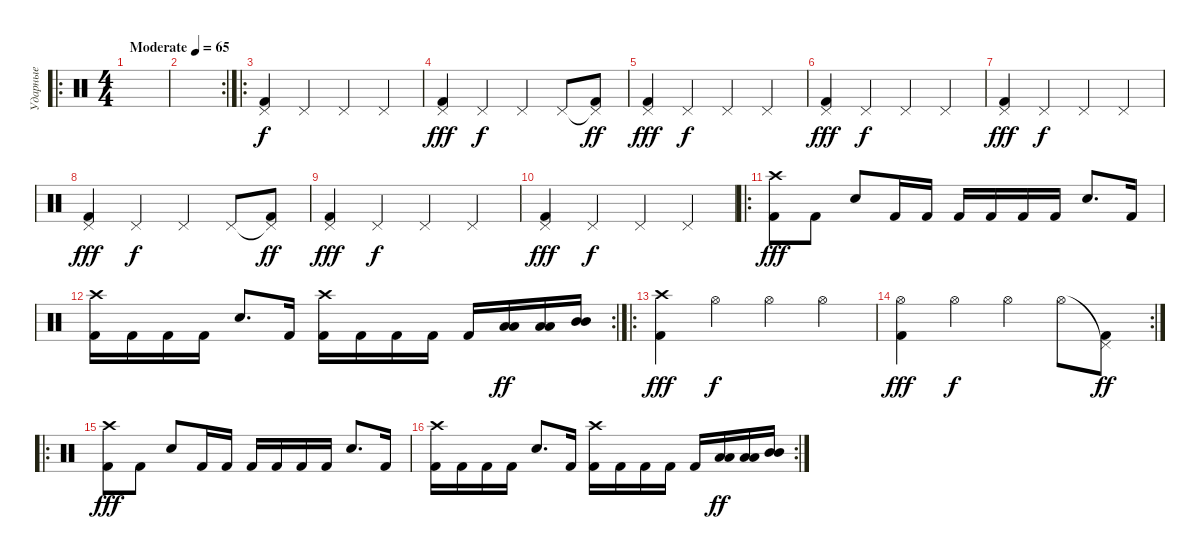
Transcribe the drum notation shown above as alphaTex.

\track ("Ударные" "Ударные") {instrument percussion}
\staff {score}
\articulation defaults
\ro
\ts (4 4)
\tempo (65 "Moderate")
\clef neutral
\ks c
|
\rc 2
|
\ro
("Pedal Hi-Hat (hit)" "Kick (hit) 2").4 "Pedal Hi-Hat (hit)".4{dy f} "Pedal Hi-Hat (hit)".4 "Pedal Hi-Hat (hit)".4 |
("Pedal Hi-Hat (hit)" "Kick (hit) 2").4{dy fff} "Pedal Hi-Hat (hit)".4{dy f} "Pedal Hi-Hat (hit)".4 "Pedal Hi-Hat (hit)".8 ("Pedal Hi-Hat (hit)"{t} "Kick (hit) 2").8{dy ff} |
("Pedal Hi-Hat (hit)" "Kick (hit) 2").4{dy fff} "Pedal Hi-Hat (hit)".4{dy f} "Pedal Hi-Hat (hit)".4 "Pedal Hi-Hat (hit)".4 |
("Pedal Hi-Hat (hit)" "Kick (hit) 2").4{dy fff} "Pedal Hi-Hat (hit)".4{dy f} "Pedal Hi-Hat (hit)".4 "Pedal Hi-Hat (hit)".4 |
("Pedal Hi-Hat (hit)" "Kick (hit) 2").4{dy fff} "Pedal Hi-Hat (hit)".4{dy f} "Pedal Hi-Hat (hit)".4 "Pedal Hi-Hat (hit)".4 |
("Pedal Hi-Hat (hit)" "Kick (hit) 2").4{dy fff} "Pedal Hi-Hat (hit)".4{dy f} "Pedal Hi-Hat (hit)".4 "Pedal Hi-Hat (hit)".8 ("Pedal Hi-Hat (hit)"{t} "Kick (hit) 2").8{dy ff} |
("Pedal Hi-Hat (hit)" "Kick (hit) 2").4{dy fff} "Pedal Hi-Hat (hit)".4{dy f} "Pedal Hi-Hat (hit)".4 "Pedal Hi-Hat (hit)".4 |
("Pedal Hi-Hat (hit)" "Kick (hit) 2").4{dy fff} "Pedal Hi-Hat (hit)".4{dy f} "Pedal Hi-Hat (hit)".4 "Pedal Hi-Hat (hit)".4 |
\ro
("Crash high (hit)" "Kick (hit) 2").8{dy fff} "Kick (hit) 2".8 "Snare (hit) 2".8 "Kick (hit) 2".16 "Kick (hit) 2".16 "Kick (hit) 2".16 "Kick (hit) 2".16 "Kick (hit) 2".16 "Kick (hit) 2".16 "Snare (hit) 2".8{d} "Kick (hit) 2".16 |
\rc 2
("Crash high (hit)" "Kick (hit) 2").16 "Kick (hit) 2".16 "Kick (hit) 2".16 "Kick (hit) 2".16 "Snare (hit) 2".8{d} "Kick (hit) 2".16 ("Crash high (hit)" "Kick (hit) 2").16 "Kick (hit) 2".16 "Kick (hit) 2".16 "Kick (hit) 2".16 "Kick (hit) 2".16 ("Low Tom (hit)" "Low Tom (hit)").16{dy ff} ("Low Tom (hit)" "Low Tom (hit)").16 ("Mid Tom (hit)" "Mid Tom (hit)").16 |
\ro
("Crash high (hit)" "Kick (hit) 2").4{dy fff} "Hi-Hat (open)".4{dy f} "Hi-Hat (open)".4 "Hi-Hat (open)".4 |
\rc 2
("Hi-Hat (open)" "Kick (hit) 2").4{dy fff} "Hi-Hat (open)".4{dy f} "Hi-Hat (open)".4 "Hi-Hat (open)".8 ("Pedal Hi-Hat (hit)"{t} "Kick (hit) 2").8{dy ff} |
\ro
("Crash high (hit)" "Kick (hit) 2").8{dy fff} "Kick (hit) 2".8 "Snare (hit) 2".8 "Kick (hit) 2".16 "Kick (hit) 2".16 "Kick (hit) 2".16 "Kick (hit) 2".16 "Kick (hit) 2".16 "Kick (hit) 2".16 "Snare (hit) 2".8{d} "Kick (hit) 2".16 |
\rc 2
("Crash high (hit)" "Kick (hit) 2").16 "Kick (hit) 2".16 "Kick (hit) 2".16 "Kick (hit) 2".16 "Snare (hit) 2".8{d} "Kick (hit) 2".16 ("Crash high (hit)" "Kick (hit) 2").16 "Kick (hit) 2".16 "Kick (hit) 2".16 "Kick (hit) 2".16 "Kick (hit) 2".16 ("Low Tom (hit)" "Low Tom (hit)").16{dy ff} ("Low Tom (hit)" "Low Tom (hit)").16 ("Mid Tom (hit)" "Mid Tom (hit)").16
